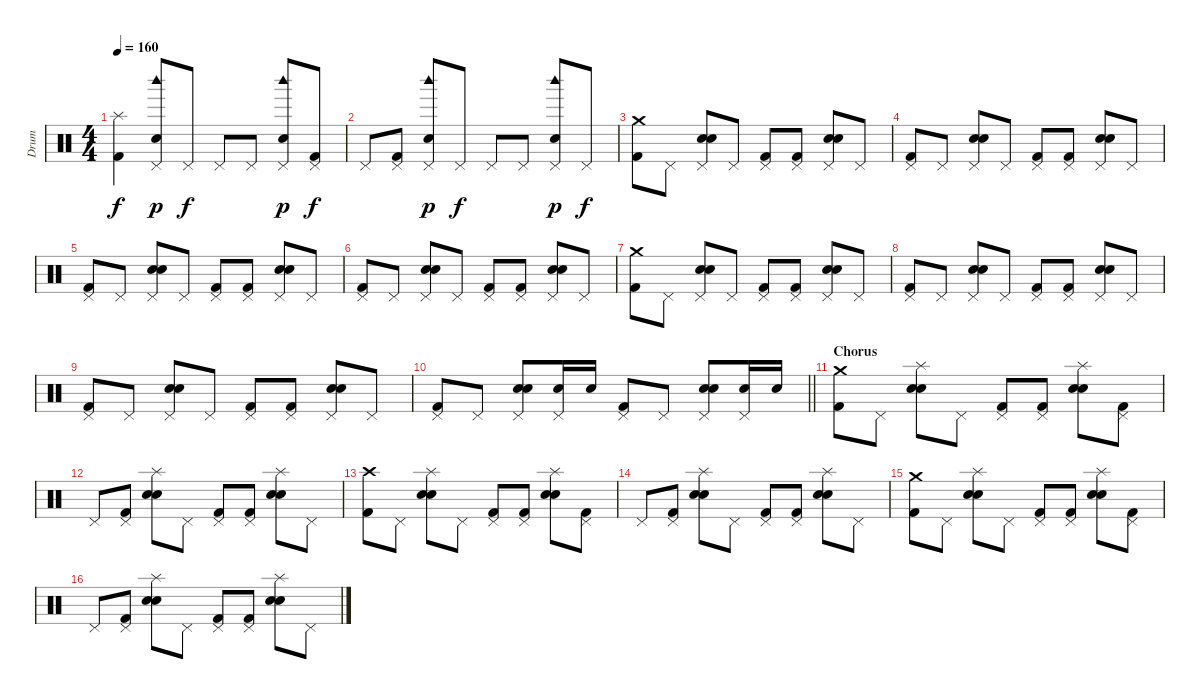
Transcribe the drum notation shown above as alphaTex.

\track ("Drum" "Drum") {instrument percussion}
\staff {score}
\articulation defaults
\ts (4 4)
\tempo 160
\clef neutral
\ks c
("Splash (hit)" "Kick (hit) 2").4{dy f} ("Pedal Hi-Hat (hit)" "Woodblock high (hit)" "Electric Snare (hit)").8{dy p} "Pedal Hi-Hat (hit)".8{dy f} "Pedal Hi-Hat (hit)".8 "Pedal Hi-Hat (hit)".8 ("Pedal Hi-Hat (hit)" "Woodblock high (hit)" "Electric Snare (hit)").8{dy p} ("Pedal Hi-Hat (hit)" "Kick (hit) 2").8{dy f} |
"Pedal Hi-Hat (hit)".8 ("Pedal Hi-Hat (hit)" "Kick (hit) 2").8 ("Pedal Hi-Hat (hit)" "Woodblock high (hit)" "Electric Snare (hit)").8{dy p} "Pedal Hi-Hat (hit)".8{dy f} "Pedal Hi-Hat (hit)".8 "Pedal Hi-Hat (hit)".8 ("Pedal Hi-Hat (hit)" "Woodblock high (hit)" "Electric Snare (hit)").8{dy p} "Pedal Hi-Hat (hit)".8{dy f} |
("Crash medium (hit)" "Kick (hit) 2").8 "Pedal Hi-Hat (hit)".8 ("Pedal Hi-Hat (hit)" "Electric Snare (hit)" "Snare (hit) 2").8 "Pedal Hi-Hat (hit)".8 ("Pedal Hi-Hat (hit)" "Kick (hit) 2").8 ("Pedal Hi-Hat (hit)" "Kick (hit) 2").8 ("Pedal Hi-Hat (hit)" "Electric Snare (hit)" "Snare (hit) 2").8 "Pedal Hi-Hat (hit)".8 |
("Pedal Hi-Hat (hit)" "Kick (hit) 2").8 "Pedal Hi-Hat (hit)".8 ("Pedal Hi-Hat (hit)" "Electric Snare (hit)" "Snare (hit) 2").8 "Pedal Hi-Hat (hit)".8 ("Pedal Hi-Hat (hit)" "Kick (hit) 2").8 ("Pedal Hi-Hat (hit)" "Kick (hit) 2").8 ("Pedal Hi-Hat (hit)" "Electric Snare (hit)" "Snare (hit) 2").8 "Pedal Hi-Hat (hit)".8 |
("Pedal Hi-Hat (hit)" "Kick (hit) 2").8 "Pedal Hi-Hat (hit)".8 ("Pedal Hi-Hat (hit)" "Electric Snare (hit)" "Snare (hit) 2").8 "Pedal Hi-Hat (hit)".8 ("Pedal Hi-Hat (hit)" "Kick (hit) 2").8 ("Pedal Hi-Hat (hit)" "Kick (hit) 2").8 ("Pedal Hi-Hat (hit)" "Electric Snare (hit)" "Snare (hit) 2").8 "Pedal Hi-Hat (hit)".8 |
("Pedal Hi-Hat (hit)" "Kick (hit) 2").8 "Pedal Hi-Hat (hit)".8 ("Pedal Hi-Hat (hit)" "Electric Snare (hit)" "Snare (hit) 2").8 "Pedal Hi-Hat (hit)".8 ("Pedal Hi-Hat (hit)" "Kick (hit) 2").8 ("Pedal Hi-Hat (hit)" "Kick (hit) 2").8 ("Pedal Hi-Hat (hit)" "Electric Snare (hit)" "Snare (hit) 2").8 "Pedal Hi-Hat (hit)".8 |
("Crash medium (hit)" "Kick (hit) 2").8 "Pedal Hi-Hat (hit)".8 ("Pedal Hi-Hat (hit)" "Electric Snare (hit)" "Snare (hit) 2").8 "Pedal Hi-Hat (hit)".8 ("Pedal Hi-Hat (hit)" "Kick (hit) 2").8 ("Pedal Hi-Hat (hit)" "Kick (hit) 2").8 ("Pedal Hi-Hat (hit)" "Electric Snare (hit)" "Snare (hit) 2").8 "Pedal Hi-Hat (hit)".8 |
("Pedal Hi-Hat (hit)" "Kick (hit) 2").8 "Pedal Hi-Hat (hit)".8 ("Pedal Hi-Hat (hit)" "Electric Snare (hit)" "Snare (hit) 2").8 "Pedal Hi-Hat (hit)".8 ("Pedal Hi-Hat (hit)" "Kick (hit) 2").8 ("Pedal Hi-Hat (hit)" "Kick (hit) 2").8 ("Pedal Hi-Hat (hit)" "Electric Snare (hit)" "Snare (hit) 2").8 "Pedal Hi-Hat (hit)".8 |
("Pedal Hi-Hat (hit)" "Kick (hit) 2").8 "Pedal Hi-Hat (hit)".8 ("Pedal Hi-Hat (hit)" "Electric Snare (hit)" "Snare (hit) 2").8 "Pedal Hi-Hat (hit)".8 ("Pedal Hi-Hat (hit)" "Kick (hit) 2").8 ("Pedal Hi-Hat (hit)" "Kick (hit) 2").8 ("Pedal Hi-Hat (hit)" "Electric Snare (hit)" "Snare (hit) 2").8 "Pedal Hi-Hat (hit)".8 |
\barLineRight lightlight
("Pedal Hi-Hat (hit)" "Kick (hit) 2").8 "Pedal Hi-Hat (hit)".8 ("Pedal Hi-Hat (hit)" "Electric Snare (hit)" "Snare (hit) 2").8 ("Pedal Hi-Hat (hit)" "Electric Snare (hit)").16 "Electric Snare (hit)".16 ("Pedal Hi-Hat (hit)" "Kick (hit) 2").8 "Pedal Hi-Hat (hit)".8 ("Pedal Hi-Hat (hit)" "Electric Snare (hit)" "Snare (hit) 2").8 ("Pedal Hi-Hat (hit)" "Electric Snare (hit)").16 "Electric Snare (hit)".16 |
\section ("" "Chorus")
("Crash medium (hit)" "Kick (hit) 2").8 "Pedal Hi-Hat (hit)".8 ("Splash (hit)" "Electric Snare (hit)" "Snare (hit) 2").8 "Pedal Hi-Hat (hit)".8 ("Pedal Hi-Hat (hit)" "Kick (hit) 2").8 ("Pedal Hi-Hat (hit)" "Kick (hit) 2").8 ("Splash (hit)" "Electric Snare (hit)" "Snare (hit) 2").8 ("Pedal Hi-Hat (hit)" "Kick (hit) 2").8 |
"Pedal Hi-Hat (hit)".8 ("Pedal Hi-Hat (hit)" "Kick (hit) 2").8 ("Splash (hit)" "Electric Snare (hit)" "Snare (hit) 2").8 "Pedal Hi-Hat (hit)".8 ("Pedal Hi-Hat (hit)" "Kick (hit) 2").8 ("Pedal Hi-Hat (hit)" "Kick (hit) 2").8 ("Splash (hit)" "Electric Snare (hit)" "Snare (hit) 2").8 "Pedal Hi-Hat (hit)".8 |
("Crash high (hit)" "Kick (hit) 2").8 "Pedal Hi-Hat (hit)".8 ("Splash (hit)" "Electric Snare (hit)" "Snare (hit) 2").8 "Pedal Hi-Hat (hit)".8 ("Pedal Hi-Hat (hit)" "Kick (hit) 2").8 ("Pedal Hi-Hat (hit)" "Kick (hit) 2").8 ("Splash (hit)" "Electric Snare (hit)" "Snare (hit) 2").8 ("Pedal Hi-Hat (hit)" "Kick (hit) 2").8 |
"Pedal Hi-Hat (hit)".8 ("Pedal Hi-Hat (hit)" "Kick (hit) 2").8 ("Splash (hit)" "Electric Snare (hit)" "Snare (hit) 2").8 "Pedal Hi-Hat (hit)".8 ("Pedal Hi-Hat (hit)" "Kick (hit) 2").8 ("Pedal Hi-Hat (hit)" "Kick (hit) 2").8 ("Splash (hit)" "Electric Snare (hit)" "Snare (hit) 2").8 "Pedal Hi-Hat (hit)".8 |
("Crash medium (hit)" "Kick (hit) 2").8 "Pedal Hi-Hat (hit)".8 ("Splash (hit)" "Electric Snare (hit)" "Snare (hit) 2").8 "Pedal Hi-Hat (hit)".8 ("Pedal Hi-Hat (hit)" "Kick (hit) 2").8 ("Pedal Hi-Hat (hit)" "Kick (hit) 2").8 ("Splash (hit)" "Electric Snare (hit)" "Snare (hit) 2").8 ("Pedal Hi-Hat (hit)" "Kick (hit) 2").8 |
"Pedal Hi-Hat (hit)".8 ("Pedal Hi-Hat (hit)" "Kick (hit) 2").8 ("Splash (hit)" "Electric Snare (hit)" "Snare (hit) 2").8 "Pedal Hi-Hat (hit)".8 ("Pedal Hi-Hat (hit)" "Kick (hit) 2").8 ("Pedal Hi-Hat (hit)" "Kick (hit) 2").8 ("Splash (hit)" "Electric Snare (hit)" "Snare (hit) 2").8 "Pedal Hi-Hat (hit)".8
